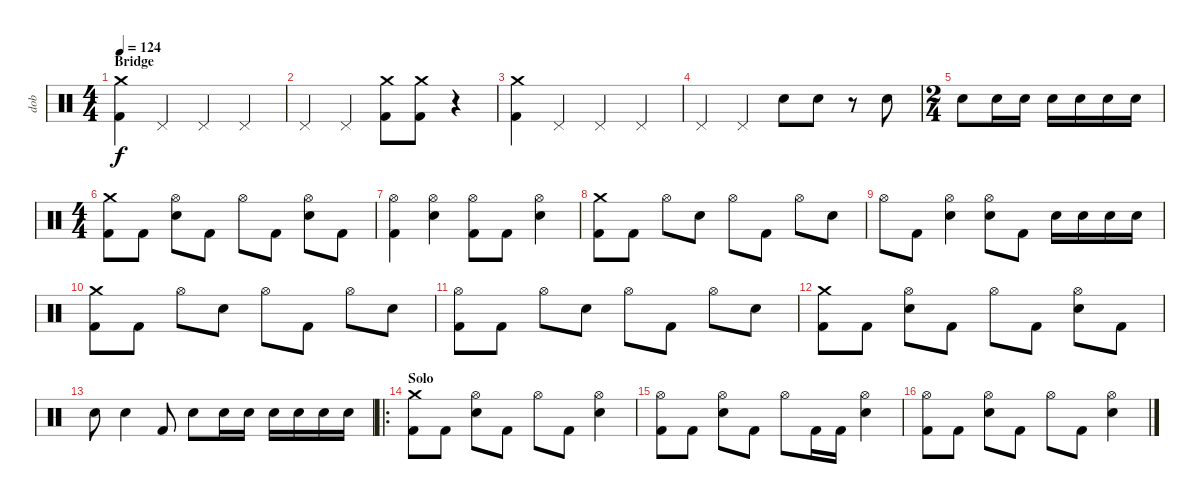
\track ("dob" "dob") {instrument percussion}
\staff {score}
\articulation defaults
\ts (4 4)
\section ("" "Bridge")
\tempo 124
\clef neutral
\ks c
("Crash medium (hit)" "Kick (hit) 2").4{dy f} "Pedal Hi-Hat (hit)".4 "Pedal Hi-Hat (hit)".4 "Pedal Hi-Hat (hit)".4 |
"Pedal Hi-Hat (hit)".4 "Pedal Hi-Hat (hit)".4 ("Crash medium (hit)" "Kick (hit) 2").8 ("Crash medium (hit)" "Kick (hit) 2").8 r.4 |
("Kick (hit) 2" "Crash medium (hit)").4 "Pedal Hi-Hat (hit)".4 "Pedal Hi-Hat (hit)".4 "Pedal Hi-Hat (hit)".4 |
"Pedal Hi-Hat (hit)".4 "Pedal Hi-Hat (hit)".4 "Electric Snare (hit)".8 "Electric Snare (hit)".8 r.8 "Electric Snare (hit)".8 |
\ts (2 4)
"Electric Snare (hit)".8 "Electric Snare (hit)".16 "Electric Snare (hit)".16 "Electric Snare (hit)".16 "Electric Snare (hit)".16 "Electric Snare (hit)".16 "Electric Snare (hit)".16 |
\ts (4 4)
("Crash medium (hit)" "Kick (hit) 2").8 "Kick (hit) 2".8 ("Hi-Hat (open)" "Electric Snare (hit)").8 "Kick (hit) 2".8 "Hi-Hat (open)".8 "Kick (hit) 2".8 ("Hi-Hat (open)" "Electric Snare (hit)").8 "Kick (hit) 2".8 |
("Hi-Hat (open)" "Kick (hit) 2").4 ("Hi-Hat (open)" "Electric Snare (hit)").4 ("Hi-Hat (open)" "Kick (hit) 2").8 "Kick (hit) 2".8 ("Hi-Hat (open)" "Electric Snare (hit)").4 |
("Crash medium (hit)" "Kick (hit) 2").8 "Kick (hit) 2".8 "Hi-Hat (open)".8 "Electric Snare (hit)".8 "Hi-Hat (open)".8 "Kick (hit) 2".8 "Hi-Hat (open)".8 "Electric Snare (hit)".8 |
"Hi-Hat (open)".8 "Kick (hit) 2".8 ("Hi-Hat (open)" "Electric Snare (hit)").4 ("Hi-Hat (open)" "Electric Snare (hit)").8 "Kick (hit) 2".8 "Electric Snare (hit)".16 "Electric Snare (hit)".16 "Electric Snare (hit)".16 "Electric Snare (hit)".16 |
("Crash medium (hit)" "Kick (hit) 2").8 "Kick (hit) 2".8 "Hi-Hat (open)".8 "Electric Snare (hit)".8 "Hi-Hat (open)".8 "Kick (hit) 2".8 "Hi-Hat (open)".8 "Electric Snare (hit)".8 |
("Hi-Hat (open)" "Kick (hit) 2").8 "Kick (hit) 2".8 "Hi-Hat (open)".8 "Electric Snare (hit)".8 "Hi-Hat (open)".8 "Kick (hit) 2".8 "Hi-Hat (open)".8 "Electric Snare (hit)".8 |
("Crash medium (hit)" "Kick (hit) 2").8 "Kick (hit) 2".8 ("Hi-Hat (open)" "Electric Snare (hit)").8 "Kick (hit) 2".8 "Hi-Hat (open)".8 "Kick (hit) 2".8 ("Hi-Hat (open)" "Electric Snare (hit)").8 "Kick (hit) 2".8 |
"Electric Snare (hit)".8 "Electric Snare (hit)".4 "Kick (hit) 2".8 "Electric Snare (hit)".8 "Electric Snare (hit)".16 "Electric Snare (hit)".16 "Electric Snare (hit)".16 "Electric Snare (hit)".16 "Electric Snare (hit)".16 "Electric Snare (hit)".16 |
\ro
\section ("" "Solo")
("Crash medium (hit)" "Kick (hit) 2").8 "Kick (hit) 2".8 ("Hi-Hat (open)" "Snare (hit) 2").8 "Kick (hit) 2".8 "Hi-Hat (open)".8 "Kick (hit) 2".8 ("Hi-Hat (open)" "Snare (hit) 2").4 |
("Hi-Hat (open)" "Kick (hit) 2").8 "Kick (hit) 2".8 ("Hi-Hat (open)" "Snare (hit) 2").8 "Kick (hit) 2".8 "Hi-Hat (open)".8 "Kick (hit) 2".16 "Kick (hit) 2".16 ("Hi-Hat (open)" "Snare (hit) 2").4 |
("Hi-Hat (open)" "Kick (hit) 2").8 "Kick (hit) 2".8 ("Hi-Hat (open)" "Snare (hit) 2").8 "Kick (hit) 2".8 "Hi-Hat (open)".8 "Kick (hit) 2".8 ("Hi-Hat (open)" "Snare (hit) 2").4
